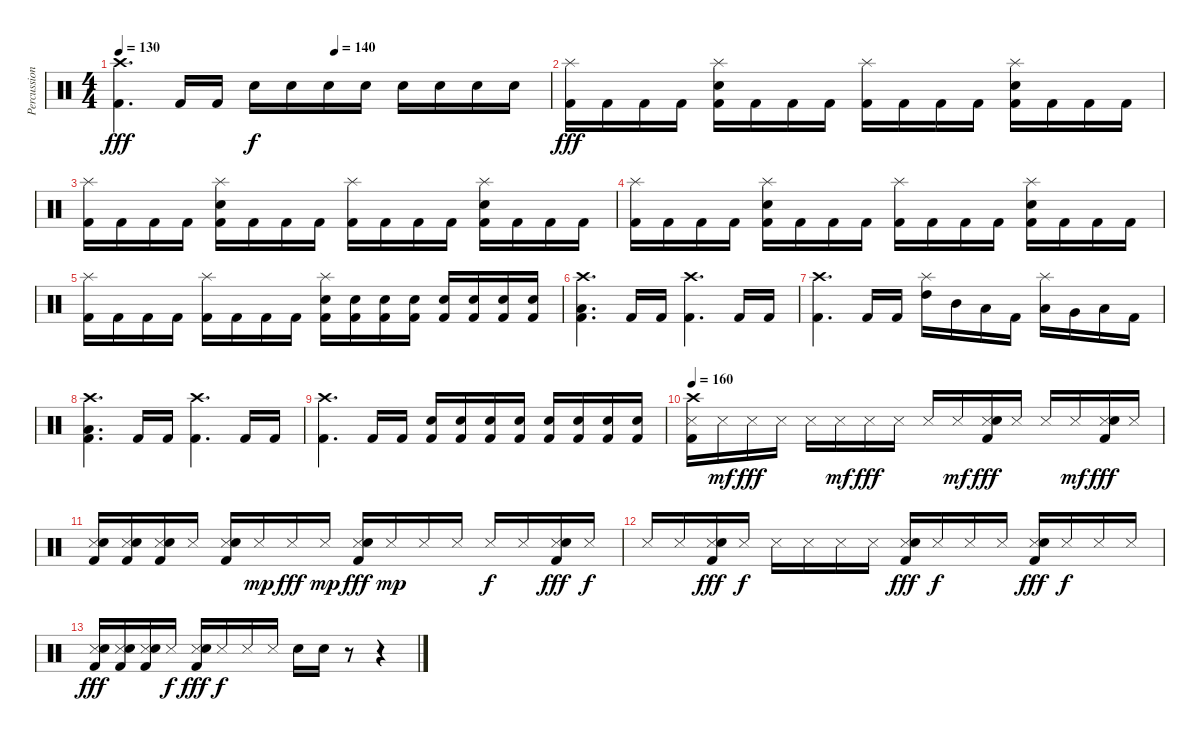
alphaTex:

\track ("Percussion" "Percussion") {instrument percussion}
\staff {score}
\articulation defaults
\ts (4 4)
\tempo 130
\tempo (140 0.5)
\clef neutral
\ks c
("Crash high (hit)" "Kick (hit) 2").4{d dy fff} "Kick (hit) 2".16 "Kick (hit) 2".16 "Electric Snare (hit)".16{dy f} "Electric Snare (hit)".16 "Electric Snare (hit)".16 "Electric Snare (hit)".16 "Electric Snare (hit)".16 "Electric Snare (hit)".16 "Electric Snare (hit)".16 "Electric Snare (hit)".16 |
("Splash (hit)" "Kick (hit) 2").16{dy fff} "Kick (hit) 2".16 "Kick (hit) 2".16 "Kick (hit) 2".16 ("Splash (hit)" "Electric Snare (hit)" "Kick (hit) 2").16 "Kick (hit) 2".16 "Kick (hit) 2".16 "Kick (hit) 2".16 ("Splash (hit)" "Kick (hit) 2").16 "Kick (hit) 2".16 "Kick (hit) 2".16 "Kick (hit) 2".16 ("Splash (hit)" "Electric Snare (hit)" "Kick (hit) 2").16 "Kick (hit) 2".16 "Kick (hit) 2".16 "Kick (hit) 2".16 |
("Splash (hit)" "Kick (hit) 2").16 "Kick (hit) 2".16 "Kick (hit) 2".16 "Kick (hit) 2".16 ("Splash (hit)" "Electric Snare (hit)" "Kick (hit) 2").16 "Kick (hit) 2".16 "Kick (hit) 2".16 "Kick (hit) 2".16 ("Splash (hit)" "Kick (hit) 2").16 "Kick (hit) 2".16 "Kick (hit) 2".16 "Kick (hit) 2".16 ("Splash (hit)" "Electric Snare (hit)" "Kick (hit) 2").16 "Kick (hit) 2".16 "Kick (hit) 2".16 "Kick (hit) 2".16 |
("Splash (hit)" "Kick (hit) 2").16 "Kick (hit) 2".16 "Kick (hit) 2".16 "Kick (hit) 2".16 ("Splash (hit)" "Electric Snare (hit)" "Kick (hit) 2").16 "Kick (hit) 2".16 "Kick (hit) 2".16 "Kick (hit) 2".16 ("Splash (hit)" "Kick (hit) 2").16 "Kick (hit) 2".16 "Kick (hit) 2".16 "Kick (hit) 2".16 ("Splash (hit)" "Electric Snare (hit)" "Kick (hit) 2").16 "Kick (hit) 2".16 "Kick (hit) 2".16 "Kick (hit) 2".16 |
("Splash (hit)" "Kick (hit) 2").16 "Kick (hit) 2".16 "Kick (hit) 2".16 "Kick (hit) 2".16 ("Splash (hit)" "Kick (hit) 2").16 "Kick (hit) 2".16 "Kick (hit) 2".16 "Kick (hit) 2".16 ("Splash (hit)" "Electric Snare (hit)" "Kick (hit) 2").16 ("Electric Snare (hit)" "Kick (hit) 2").16 ("Electric Snare (hit)" "Kick (hit) 2").16 ("Electric Snare (hit)" "Kick (hit) 2").16 ("Electric Snare (hit)" "Kick (hit) 2").16 ("Electric Snare (hit)" "Kick (hit) 2").16 ("Electric Snare (hit)" "Kick (hit) 2").16 ("Electric Snare (hit)" "Kick (hit) 2").16 |
("Crash high (hit)" "Low Floor Tom (hit)" "Kick (hit) 2").4{d} "Kick (hit) 2".16 "Kick (hit) 2".16 ("Crash high (hit)" "Kick (hit) 2").4{d} "Kick (hit) 2".16 "Kick (hit) 2".16 |
("Crash high (hit)" "Kick (hit) 2").4{d} "Kick (hit) 2".16 "Kick (hit) 2".16 ("Splash (hit)" "High Tom (hit)").16 "Mid Tom (hit)".16 "Low Tom (hit)".16 "Kick (hit) 2".16 ("Splash (hit)" "Low Tom (hit)").16 "Very Low Tom (hit)".16 "Low Floor Tom (hit)".16 "Kick (hit) 2".16 |
("Crash high (hit)" "Low Floor Tom (hit)" "Kick (hit) 2").4{d} "Kick (hit) 2".16 "Kick (hit) 2".16 ("Crash high (hit)" "Kick (hit) 2").4{d} "Kick (hit) 2".16 "Kick (hit) 2".16 |
("Crash high (hit)" "Kick (hit) 2").4{d} "Kick (hit) 2".16 "Kick (hit) 2".16 ("Electric Snare (hit)" "Kick (hit) 2").16 ("Electric Snare (hit)" "Kick (hit) 2").16 ("Electric Snare (hit)" "Kick (hit) 2").16 ("Electric Snare (hit)" "Kick (hit) 2").16 ("Electric Snare (hit)" "Kick (hit) 2").16 ("Electric Snare (hit)" "Kick (hit) 2").16 ("Electric Snare (hit)" "Kick (hit) 2").16 ("Electric Snare (hit)" "Kick (hit) 2").16 |
\tempo 160
("Crash high (hit)" "Snare (side stick) 3" "Kick (hit) 2").16 "Snare (side stick) 3".16{dy mf} "Snare (side stick) 3".16{dy fff} "Snare (side stick) 3".16 "Snare (side stick) 3".16 "Snare (side stick) 3".16{dy mf} "Snare (side stick) 3".16{dy fff} "Snare (side stick) 3".16 "Snare (side stick) 3".16 "Snare (side stick) 3".16{dy mf} ("Snare (side stick) 3" "Electric Snare (hit)" "Kick (hit) 2").16{dy fff} "Snare (side stick) 3".16 "Snare (side stick) 3".16 "Snare (side stick) 3".16{dy mf} ("Snare (side stick) 3" "Electric Snare (hit)" "Kick (hit) 2").16{dy fff} "Snare (side stick) 3".16 |
("Snare (side stick) 3" "Electric Snare (hit)" "Kick (hit) 2").16 ("Snare (side stick) 3" "Electric Snare (hit)" "Kick (hit) 2").16 ("Snare (side stick) 3" "Electric Snare (hit)" "Kick (hit) 2").16 "Snare (side stick) 3".16 ("Snare (side stick) 3" "Electric Snare (hit)" "Kick (hit) 2").16 "Snare (side stick) 3".16{dy mp} "Snare (side stick) 3".16{dy fff} "Snare (side stick) 3".16{dy mp} ("Snare (side stick) 3" "Electric Snare (hit)" "Kick (hit) 2").16{dy fff} "Snare (side stick) 3".16{dy mp} "Snare (side stick) 3".16 "Snare (side stick) 3".16 "Snare (side stick) 3".16{dy f} "Snare (side stick) 3".16 ("Snare (side stick) 3" "Electric Snare (hit)" "Kick (hit) 2").16{dy fff} "Snare (side stick) 3".16{dy f} |
"Snare (side stick) 3".16 "Snare (side stick) 3".16 ("Snare (side stick) 3" "Electric Snare (hit)" "Kick (hit) 2").16{dy fff} "Snare (side stick) 3".16{dy f} "Snare (side stick) 3".16 "Snare (side stick) 3".16 "Snare (side stick) 3".16 "Snare (side stick) 3".16 ("Snare (side stick) 3" "Electric Snare (hit)" "Kick (hit) 2").16{dy fff} "Snare (side stick) 3".16{dy f} "Snare (side stick) 3".16 "Snare (side stick) 3".16 ("Snare (side stick) 3" "Electric Snare (hit)" "Kick (hit) 2").16{dy fff} "Snare (side stick) 3".16{dy f} "Snare (side stick) 3".16 "Snare (side stick) 3".16 |
("Snare (side stick) 3" "Electric Snare (hit)" "Kick (hit) 2").16{dy fff} ("Snare (side stick) 3" "Electric Snare (hit)" "Kick (hit) 2").16 ("Snare (side stick) 3" "Electric Snare (hit)" "Kick (hit) 2").16 "Snare (side stick) 3".16{dy f} ("Snare (side stick) 3" "Electric Snare (hit)" "Kick (hit) 2").16{dy fff} "Snare (side stick) 3".16{dy f} "Snare (side stick) 3".16 "Snare (side stick) 3".16 "Electric Snare (hit)".16 "Electric Snare (hit)".16 r.8 r.4
